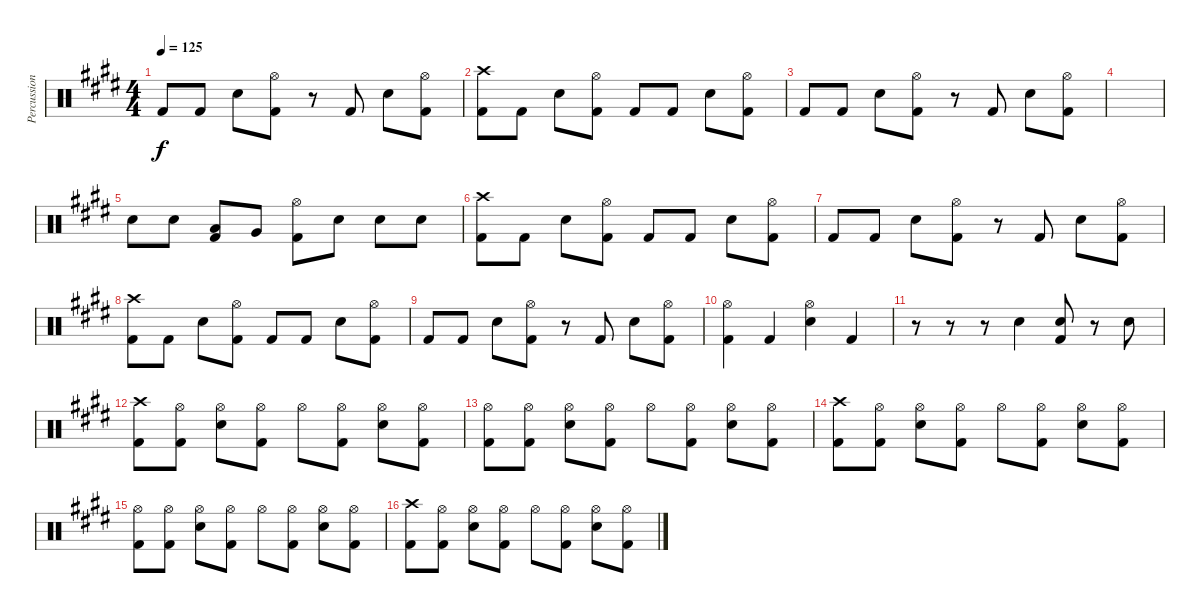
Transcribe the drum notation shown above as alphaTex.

\track ("Percussion" "Percussion") {instrument percussion}
\staff {score}
\articulation defaults
\ts (4 4)
\tempo 125
\clef neutral
\ks e "Kick (hit) 2".8{dy f} "Kick (hit) 2".8 "Electric Snare (hit)".8
("Hi-Hat (open)" "Kick (hit) 2").8 r.8 "Kick (hit) 2".8 "Electric Snare (hit)".8 ("Hi-Hat (open)" "Kick (hit) 2").8 |
("Crash high (hit)" "Kick (hit) 2").8 "Kick (hit) 2".8 "Electric Snare (hit)".8 ("Hi-Hat (open)" "Kick (hit) 2").8 "Kick (hit) 2".8 "Kick (hit) 2".8 "Electric Snare (hit)".8 ("Hi-Hat (open)" "Kick (hit) 2").8 |
"Kick (hit) 2".8 "Kick (hit) 2".8 "Electric Snare (hit)".8 ("Hi-Hat (open)" "Kick (hit) 2").8 r.8 "Kick (hit) 2".8 "Electric Snare (hit)".8 ("Hi-Hat (open)" "Kick (hit) 2").8 |
|
"Electric Snare (hit)".8 "Electric Snare (hit)".8 ("Low Tom (hit)" "Kick (hit) 2").8 "Very Low Tom (hit)".8 ("Hi-Hat (open)" "Kick (hit) 2").8 "Electric Snare (hit)".8 "Electric Snare (hit)".8 "Electric Snare (hit)".8 |
("Crash high (hit)" "Kick (hit) 2").8 "Kick (hit) 2".8 "Electric Snare (hit)".8 ("Hi-Hat (open)" "Kick (hit) 2").8 "Kick (hit) 2".8 "Kick (hit) 2".8 "Electric Snare (hit)".8 ("Hi-Hat (open)" "Kick (hit) 2").8 |
"Kick (hit) 2".8 "Kick (hit) 2".8 "Electric Snare (hit)".8 ("Hi-Hat (open)" "Kick (hit) 2").8 r.8 "Kick (hit) 2".8 "Electric Snare (hit)".8 ("Hi-Hat (open)" "Kick (hit) 2").8 |
("Crash high (hit)" "Kick (hit) 2").8 "Kick (hit) 2".8 "Electric Snare (hit)".8 ("Hi-Hat (open)" "Kick (hit) 2").8 "Kick (hit) 2".8 "Kick (hit) 2".8 "Electric Snare (hit)".8 ("Hi-Hat (open)" "Kick (hit) 2").8 |
"Kick (hit) 2".8 "Kick (hit) 2".8 "Electric Snare (hit)".8 ("Hi-Hat (open)" "Kick (hit) 2").8 r.8 "Kick (hit) 2".8 "Electric Snare (hit)".8 ("Hi-Hat (open)" "Kick (hit) 2").8 |
("Hi-Hat (open)" "Kick (hit) 2").4 "Kick (hit) 2".4 ("Hi-Hat (open)" "Electric Snare (hit)").4 "Kick (hit) 2".4 |
r.8 r.8 r.8 "Electric Snare (hit)".4 ("Electric Snare (hit)" "Kick (hit) 2").8 r.8 "Electric Snare (hit)".8 |
("Crash high (hit)" "Kick (hit) 2").8 ("Hi-Hat (open)" "Kick (hit) 2").8 ("Hi-Hat (open)" "Electric Snare (hit)").8 ("Hi-Hat (open)" "Kick (hit) 2").8 "Hi-Hat (open)".8 ("Hi-Hat (open)" "Kick (hit) 2").8 ("Hi-Hat (open)" "Electric Snare (hit)").8 ("Hi-Hat (open)" "Kick (hit) 2").8 |
("Hi-Hat (open)" "Kick (hit) 2").8 ("Hi-Hat (open)" "Kick (hit) 2").8 ("Hi-Hat (open)" "Electric Snare (hit)").8 ("Hi-Hat (open)" "Kick (hit) 2").8 "Hi-Hat (open)".8 ("Hi-Hat (open)" "Kick (hit) 2").8 ("Hi-Hat (open)" "Electric Snare (hit)").8 ("Hi-Hat (open)" "Kick (hit) 2").8 |
("Crash high (hit)" "Kick (hit) 2").8 ("Hi-Hat (open)" "Kick (hit) 2").8 ("Hi-Hat (open)" "Electric Snare (hit)").8 ("Hi-Hat (open)" "Kick (hit) 2").8 "Hi-Hat (open)".8 ("Hi-Hat (open)" "Kick (hit) 2").8 ("Hi-Hat (open)" "Electric Snare (hit)").8 ("Hi-Hat (open)" "Kick (hit) 2").8 |
("Hi-Hat (open)" "Kick (hit) 2").8 ("Hi-Hat (open)" "Kick (hit) 2").8 ("Hi-Hat (open)" "Electric Snare (hit)").8 ("Hi-Hat (open)" "Kick (hit) 2").8 "Hi-Hat (open)".8 ("Hi-Hat (open)" "Kick (hit) 2").8 ("Hi-Hat (open)" "Electric Snare (hit)").8 ("Hi-Hat (open)" "Kick (hit) 2").8 |
("Crash high (hit)" "Kick (hit) 2").8 ("Hi-Hat (open)" "Kick (hit) 2").8 ("Hi-Hat (open)" "Electric Snare (hit)").8 ("Hi-Hat (open)" "Kick (hit) 2").8 "Hi-Hat (open)".8 ("Hi-Hat (open)" "Kick (hit) 2").8 ("Hi-Hat (open)" "Electric Snare (hit)").8 ("Hi-Hat (open)" "Kick (hit) 2").8
